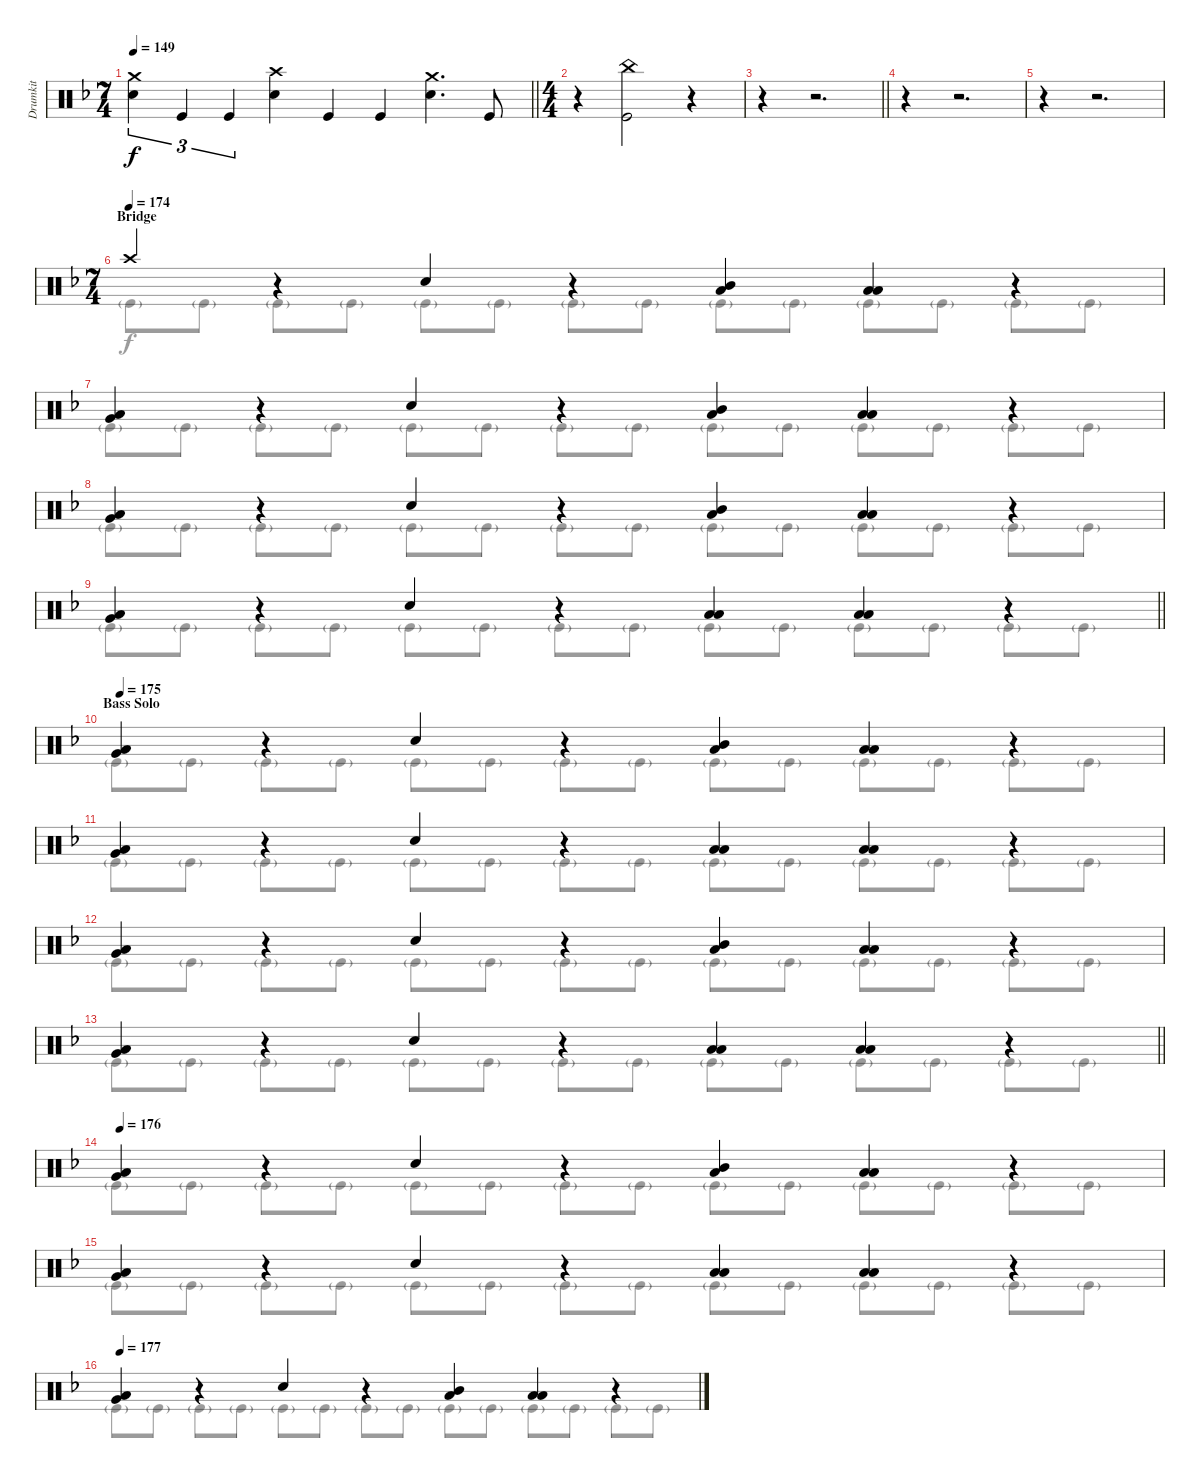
\track ("Drumkit" "Drumkit") {instrument percussion}
\staff {score}
\articulation defaults
\voice
\ts (7 4)
\tempo 149
\clef neutral
\barLineRight lightlight
\ks dminor
("Snare (hit) 2" "Crash medium (hit)").4{tu (3 2) dy f} "Kick (hit)".4{tu (3 2)} "Kick (hit)".4{tu (3 2)} ("Snare (hit) 2" "Crash high (hit)").4 "Kick (hit)".4 "Kick (hit)".4 ("Snare (hit) 2" "Crash medium (hit)").4{d} "Kick (hit)".8 |
\ts (4 4)
r.4 ("Kick (hit)" "China (hit)").2 r.4 |
\barLineRight lightlight
r.4 r.2{d} |
r.4 r.2{d} |
r.4 r.2{d} |
\ts (7 4)
\section ("" "Bridge")
\tempo (174)
"Crash high (hit)".4 r.4 "Snare (hit) 2".4 r.4 ("Mid Tom (hit)" "Low Floor Tom (hit)").4 ("Low Tom (hit)" "Low Floor Tom (hit)").4 r.4 |
("Low Floor Tom (hit)" "Very Low Tom (hit)").4 r.4 "Snare (hit) 2".4 r.4 ("Mid Tom (hit)" "Low Floor Tom (hit)").4 ("Low Tom (hit)" "Low Floor Tom (hit)").4 r.4 |
("Low Floor Tom (hit)" "Very Low Tom (hit)").4 r.4 "Snare (hit) 2".4 r.4 ("Mid Tom (hit)" "Low Floor Tom (hit)").4 ("Low Tom (hit)" "Low Floor Tom (hit)").4 r.4 |
\barLineRight lightlight
("Low Floor Tom (hit)" "Very Low Tom (hit)").4 r.4 "Snare (hit) 2".4 r.4 ("Low Tom (hit)" "Low Floor Tom (hit)").4 ("Low Tom (hit)" "Low Floor Tom (hit)").4 r.4 |
\section ("" "Bass Solo")
\tempo 175
("Low Floor Tom (hit)" "Very Low Tom (hit)").4 r.4 "Snare (hit) 2".4 r.4 ("Mid Tom (hit)" "Low Floor Tom (hit)").4 ("Low Tom (hit)" "Low Floor Tom (hit)").4 r.4 |
("Low Floor Tom (hit)" "Very Low Tom (hit)").4 r.4 "Snare (hit) 2".4 r.4 ("Low Tom (hit)" "Low Floor Tom (hit)").4 ("Low Tom (hit)" "Low Floor Tom (hit)").4 r.4 |
("Low Floor Tom (hit)" "Very Low Tom (hit)").4 r.4 "Snare (hit) 2".4 r.4 ("Mid Tom (hit)" "Low Floor Tom (hit)").4 ("Low Tom (hit)" "Low Floor Tom (hit)").4 r.4 |
\barLineRight lightlight
("Low Floor Tom (hit)" "Very Low Tom (hit)").4 r.4 "Snare (hit) 2".4 r.4 ("Low Tom (hit)" "Low Floor Tom (hit)").4 ("Low Tom (hit)" "Low Floor Tom (hit)").4 r.4 |
\tempo 176
("Low Floor Tom (hit)" "Very Low Tom (hit)").4 r.4 "Snare (hit) 2".4 r.4 ("Mid Tom (hit)" "Low Floor Tom (hit)").4 ("Low Tom (hit)" "Low Floor Tom (hit)").4 r.4 |
("Low Floor Tom (hit)" "Very Low Tom (hit)").4 r.4 "Snare (hit) 2".4 r.4 ("Low Tom (hit)" "Low Floor Tom (hit)").4 ("Low Tom (hit)" "Low Floor Tom (hit)").4 r.4 |
\tempo 177
("Low Floor Tom (hit)" "Very Low Tom (hit)").4 r.4 "Snare (hit) 2".4 r.4 ("Mid Tom (hit)" "Low Floor Tom (hit)").4 ("Low Tom (hit)" "Low Floor Tom (hit)").4 r.4
\voice
\clef neutral
\ottava regular
\simile none
\barLineRight lightlight
\ks dminor
|
|
\barLineRight lightlight
|
|
|
"Kick (hit)"{g}.8 "Kick (hit)"{g}.8 "Kick (hit)"{g}.8 "Kick (hit)"{g}.8 "Kick (hit)"{g}.8 "Kick (hit)"{g}.8 "Kick (hit)"{g}.8 "Kick (hit)"{g}.8 "Kick (hit)"{g}.8 "Kick (hit)"{g}.8 "Kick (hit)"{g}.8 "Kick (hit)"{g}.8 "Kick (hit)"{g}.8 "Kick (hit)"{g}.8 |
"Kick (hit)"{g}.8 "Kick (hit)"{g}.8 "Kick (hit)"{g}.8 "Kick (hit)"{g}.8 "Kick (hit)"{g}.8 "Kick (hit)"{g}.8 "Kick (hit)"{g}.8 "Kick (hit)"{g}.8 "Kick (hit)"{g}.8 "Kick (hit)"{g}.8 "Kick (hit)"{g}.8 "Kick (hit)"{g}.8 "Kick (hit)"{g}.8 "Kick (hit)"{g}.8 |
"Kick (hit)"{g}.8 "Kick (hit)"{g}.8 "Kick (hit)"{g}.8 "Kick (hit)"{g}.8 "Kick (hit)"{g}.8 "Kick (hit)"{g}.8 "Kick (hit)"{g}.8 "Kick (hit)"{g}.8 "Kick (hit)"{g}.8 "Kick (hit)"{g}.8 "Kick (hit)"{g}.8 "Kick (hit)"{g}.8 "Kick (hit)"{g}.8 "Kick (hit)"{g}.8 |
\barLineRight lightlight "Kick (hit)"{g}.8 "Kick (hit)"{g}.8 "Kick (hit)"{g}.8 "Kick (hit)"{g}.8 "Kick (hit)"{g}.8 "Kick (hit)"{g}.8 "Kick (hit)"{g}.8 "Kick (hit)"{g}.8 "Kick (hit)"{g}.8 "Kick (hit)"{g}.8 "Kick (hit)"{g}.8 "Kick (hit)"{g}.8 "Kick (hit)"{g}.8 "Kick (hit)"{g}.8
|
"Kick (hit)"{g}.8 "Kick (hit)"{g}.8 "Kick (hit)"{g}.8 "Kick (hit)"{g}.8 "Kick (hit)"{g}.8 "Kick (hit)"{g}.8 "Kick (hit)"{g}.8 "Kick (hit)"{g}.8 "Kick (hit)"{g}.8 "Kick (hit)"{g}.8 "Kick (hit)"{g}.8 "Kick (hit)"{g}.8 "Kick (hit)"{g}.8 "Kick (hit)"{g}.8 |
"Kick (hit)"{g}.8 "Kick (hit)"{g}.8 "Kick (hit)"{g}.8 "Kick (hit)"{g}.8 "Kick (hit)"{g}.8 "Kick (hit)"{g}.8 "Kick (hit)"{g}.8 "Kick (hit)"{g}.8 "Kick (hit)"{g}.8 "Kick (hit)"{g}.8 "Kick (hit)"{g}.8 "Kick (hit)"{g}.8 "Kick (hit)"{g}.8 "Kick (hit)"{g}.8 |
"Kick (hit)"{g}.8 "Kick (hit)"{g}.8 "Kick (hit)"{g}.8 "Kick (hit)"{g}.8 "Kick (hit)"{g}.8 "Kick (hit)"{g}.8 "Kick (hit)"{g}.8 "Kick (hit)"{g}.8 "Kick (hit)"{g}.8 "Kick (hit)"{g}.8 "Kick (hit)"{g}.8 "Kick (hit)"{g}.8 "Kick (hit)"{g}.8 "Kick (hit)"{g}.8 |
\barLineRight lightlight "Kick (hit)"{g}.8 "Kick (hit)"{g}.8 "Kick (hit)"{g}.8 "Kick (hit)"{g}.8 "Kick (hit)"{g}.8 "Kick (hit)"{g}.8 "Kick (hit)"{g}.8 "Kick (hit)"{g}.8 "Kick (hit)"{g}.8 "Kick (hit)"{g}.8 "Kick (hit)"{g}.8 "Kick (hit)"{g}.8 "Kick (hit)"{g}.8 "Kick (hit)"{g}.8
|
"Kick (hit)"{g}.8 "Kick (hit)"{g}.8 "Kick (hit)"{g}.8 "Kick (hit)"{g}.8 "Kick (hit)"{g}.8 "Kick (hit)"{g}.8 "Kick (hit)"{g}.8 "Kick (hit)"{g}.8 "Kick (hit)"{g}.8 "Kick (hit)"{g}.8 "Kick (hit)"{g}.8 "Kick (hit)"{g}.8 "Kick (hit)"{g}.8 "Kick (hit)"{g}.8 |
"Kick (hit)"{g}.8 "Kick (hit)"{g}.8 "Kick (hit)"{g}.8 "Kick (hit)"{g}.8 "Kick (hit)"{g}.8 "Kick (hit)"{g}.8 "Kick (hit)"{g}.8 "Kick (hit)"{g}.8 "Kick (hit)"{g}.8 "Kick (hit)"{g}.8 "Kick (hit)"{g}.8 "Kick (hit)"{g}.8 "Kick (hit)"{g}.8 "Kick (hit)"{g}.8 |
"Kick (hit)"{g}.8 "Kick (hit)"{g}.8 "Kick (hit)"{g}.8 "Kick (hit)"{g}.8 "Kick (hit)"{g}.8 "Kick (hit)"{g}.8 "Kick (hit)"{g}.8 "Kick (hit)"{g}.8 "Kick (hit)"{g}.8 "Kick (hit)"{g}.8 "Kick (hit)"{g}.8 "Kick (hit)"{g}.8 "Kick (hit)"{g}.8 "Kick (hit)"{g}.8
